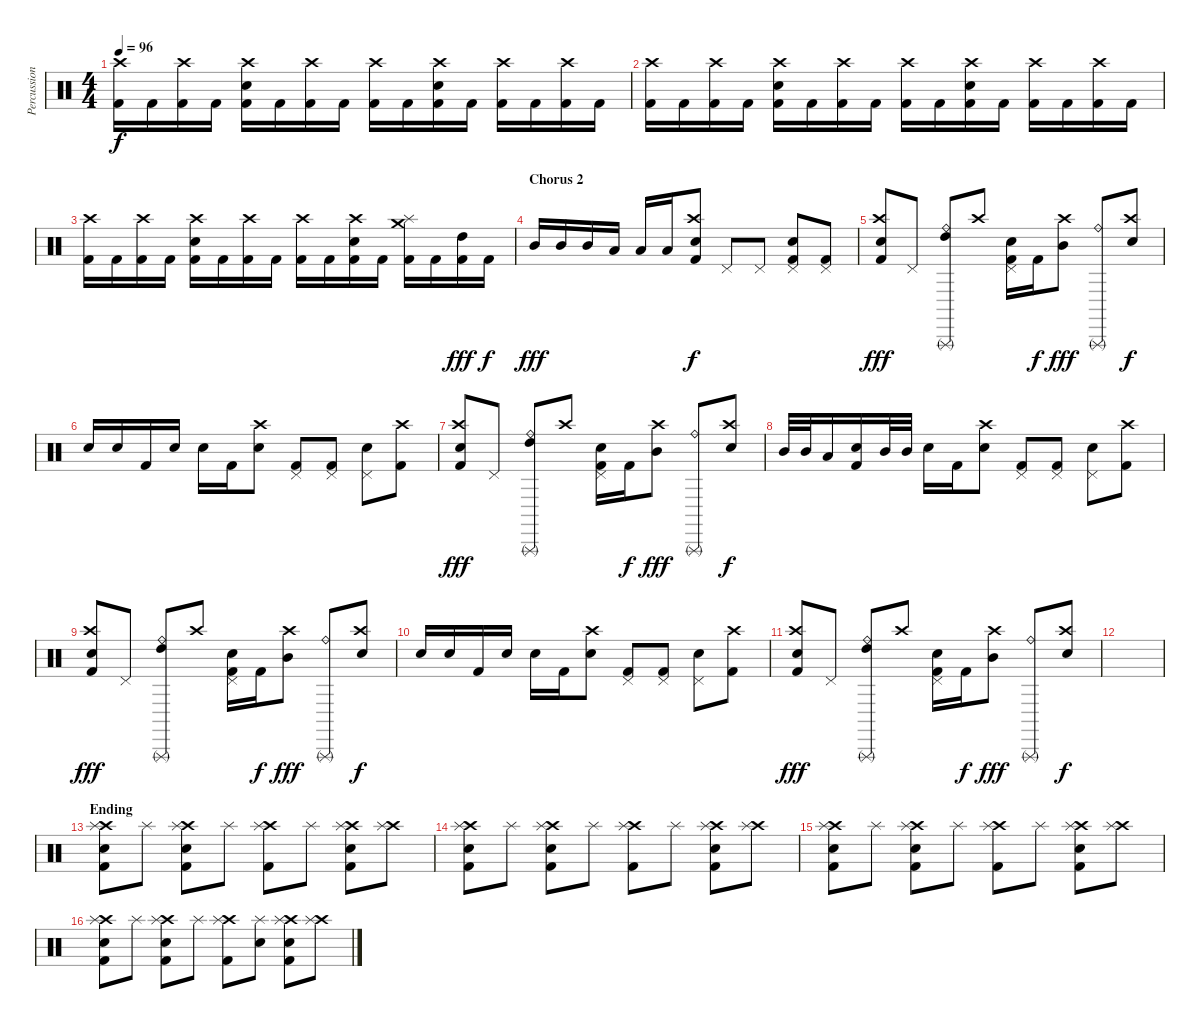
\track ("Percussion" "Percussion") {instrument percussion}
\staff {score}
\articulation defaults
\ts (4 4)
\tempo 96
\clef neutral
\ks c
("Kick (hit) 2" "Crash high (hit)").16{dy f} "Kick (hit) 2".16 ("Kick (hit) 2" "Crash high (hit)").16 "Kick (hit) 2".16 ("Kick (hit) 2" "Snare (hit) 2" "Crash high (hit)").16 "Kick (hit) 2".16 ("Kick (hit) 2" "Crash high (hit)").16 "Kick (hit) 2".16 ("Kick (hit) 2" "Crash high (hit)").16 "Kick (hit) 2".16 ("Kick (hit) 2" "Snare (hit) 2" "Crash high (hit)").16 "Kick (hit) 2".16 ("Kick (hit) 2" "Crash high (hit)").16 "Kick (hit) 2".16 ("Kick (hit) 2" "Crash high (hit)").16 "Kick (hit) 2".16 |
("Kick (hit) 2" "Crash high (hit)").16 "Kick (hit) 2".16 ("Kick (hit) 2" "Crash high (hit)").16 "Kick (hit) 2".16 ("Kick (hit) 2" "Snare (hit) 2" "Crash high (hit)").16 "Kick (hit) 2".16 ("Kick (hit) 2" "Crash high (hit)").16 "Kick (hit) 2".16 ("Kick (hit) 2" "Crash high (hit)").16 "Kick (hit) 2".16 ("Kick (hit) 2" "Snare (hit) 2" "Crash high (hit)").16 "Kick (hit) 2".16 ("Kick (hit) 2" "Crash high (hit)").16 "Kick (hit) 2".16 ("Kick (hit) 2" "Crash high (hit)").16 "Kick (hit) 2".16 |
("Kick (hit) 2" "Crash high (hit)").16 "Kick (hit) 2".16 ("Kick (hit) 2" "Crash high (hit)").16 "Kick (hit) 2".16 ("Kick (hit) 2" "Snare (hit) 2" "Crash high (hit)").16 "Kick (hit) 2".16 ("Kick (hit) 2" "Crash high (hit)").16 "Kick (hit) 2".16 ("Kick (hit) 2" "Crash high (hit)").16 "Kick (hit) 2".16 ("Kick (hit) 2" "Snare (hit) 2" "Crash high (hit)").16 "Kick (hit) 2".16 ("Kick (hit) 2" "Splash (hit)" "Crash medium (hit)").16 "Kick (hit) 2".16 ("Kick (hit) 2" "High Tom (hit)").16{dy fff} "Kick (hit) 2".16{dy f} |
\section ("" "Chorus 2")
"Mid Tom (hit)".16{dy fff} "Mid Tom (hit)".16 "Mid Tom (hit)".16 "Low Tom (hit)".16 "Low Tom (hit)".16 "Low Tom (hit)".16 ("Crash high (hit)" "Snare (hit) 2" "Kick (hit) 2").8{dy f} "Pedal Hi-Hat (hit)".8 "Pedal Hi-Hat (hit)".8 ("Pedal Hi-Hat (hit)" "Snare (hit) 2" "Kick (hit) 2").8 ("Pedal Hi-Hat (hit)" "Kick (hit) 2").8 |
("Crash high (hit)" "Snare (hit) 2" "Kick (hit) 2").8{dy fff} "Pedal Hi-Hat (hit)".8 ("Ride (bell)" "High Tom (hit)" "Triangle (rnute)").8 "Crash high (hit)".8 ("Pedal Hi-Hat (hit)" "Snare (hit) 2" "Kick (hit) 2").16 "Kick (hit) 2".16{dy f} ("Crash high (hit)" "Mid Tom (hit)").8{dy fff} ("Ride (bell)" "Triangle (rnute)").8 ("Crash high (hit)" "Snare (hit) 2").8{dy f} |
"Snare (hit) 2".16 "Snare (hit) 2".16 "Kick (hit) 2".16 "Snare (hit) 2".16 "Snare (hit) 2".16 "Kick (hit) 2".16 ("Crash high (hit)" "Snare (hit) 2").8 ("Pedal Hi-Hat (hit)" "Kick (hit) 2").8 ("Pedal Hi-Hat (hit)" "Kick (hit) 2").8 ("Pedal Hi-Hat (hit)" "Snare (hit) 2").8 ("Crash high (hit)" "Kick (hit) 2").8 |
("Crash high (hit)" "Snare (hit) 2" "Kick (hit) 2").8{dy fff} "Pedal Hi-Hat (hit)".8 ("Ride (bell)" "High Tom (hit)" "Triangle (rnute)").8 "Crash high (hit)".8 ("Pedal Hi-Hat (hit)" "Snare (hit) 2" "Kick (hit) 2").16 "Kick (hit) 2".16{dy f} ("Crash high (hit)" "Mid Tom (hit)").8{dy fff} ("Ride (bell)" "Triangle (rnute)").8 ("Crash high (hit)" "Snare (hit) 2").8{dy f} |
"Mid Tom (hit)".32 "Mid Tom (hit)".32 "Low Tom (hit)".16 ("Snare (hit) 2" "Kick (hit) 2").16 "Mid Tom (hit)".32 "Mid Tom (hit)".32 "Snare (hit) 2".16 "Kick (hit) 2".16 ("Crash high (hit)" "Snare (hit) 2").8 ("Pedal Hi-Hat (hit)" "Kick (hit) 2").8 ("Pedal Hi-Hat (hit)" "Kick (hit) 2").8 ("Pedal Hi-Hat (hit)" "Snare (hit) 2").8 ("Crash high (hit)" "Kick (hit) 2").8 |
("Crash high (hit)" "Snare (hit) 2" "Kick (hit) 2").8{dy fff} "Pedal Hi-Hat (hit)".8 ("Ride (bell)" "High Tom (hit)" "Triangle (rnute)").8 "Crash high (hit)".8 ("Pedal Hi-Hat (hit)" "Snare (hit) 2" "Kick (hit) 2").16 "Kick (hit) 2".16{dy f} ("Crash high (hit)" "Mid Tom (hit)").8{dy fff} ("Ride (bell)" "Triangle (rnute)").8 ("Crash high (hit)" "Snare (hit) 2").8{dy f} |
"Snare (hit) 2".16 "Snare (hit) 2".16 "Kick (hit) 2".16 "Snare (hit) 2".16 "Snare (hit) 2".16 "Kick (hit) 2".16 ("Crash high (hit)" "Snare (hit) 2").8 ("Pedal Hi-Hat (hit)" "Kick (hit) 2").8 ("Pedal Hi-Hat (hit)" "Kick (hit) 2").8 ("Pedal Hi-Hat (hit)" "Snare (hit) 2").8 ("Crash high (hit)" "Kick (hit) 2").8 |
("Crash high (hit)" "Snare (hit) 2" "Kick (hit) 2").8{dy fff} "Pedal Hi-Hat (hit)".8 ("Ride (bell)" "High Tom (hit)" "Triangle (rnute)").8 "Crash high (hit)".8 ("Pedal Hi-Hat (hit)" "Snare (hit) 2" "Kick (hit) 2").16 "Kick (hit) 2".16{dy f} ("Crash high (hit)" "Mid Tom (hit)").8{dy fff} ("Ride (bell)" "Triangle (rnute)").8 ("Crash high (hit)" "Snare (hit) 2").8{dy f} |
|
\section ("" "Ending")
("Crash high (hit)" "Splash (hit)" "Snare (hit) 2" "Kick (hit) 2").8 "Splash (hit)".8 ("Crash high (hit)" "Splash (hit)" "Snare (hit) 2" "Kick (hit) 2").8 "Splash (hit)".8 ("Crash high (hit)" "Splash (hit)" "Kick (hit) 2").8 "Splash (hit)".8 ("Crash high (hit)" "Splash (hit)" "Snare (hit) 2" "Kick (hit) 2").8 ("Crash high (hit)" "Splash (hit)").8 |
("Crash high (hit)" "Splash (hit)" "Snare (hit) 2" "Kick (hit) 2").8 "Splash (hit)".8 ("Crash high (hit)" "Splash (hit)" "Snare (hit) 2" "Kick (hit) 2").8 "Splash (hit)".8 ("Crash high (hit)" "Splash (hit)" "Kick (hit) 2").8 "Splash (hit)".8 ("Crash high (hit)" "Splash (hit)" "Snare (hit) 2" "Kick (hit) 2").8 ("Crash high (hit)" "Splash (hit)").8 |
("Crash high (hit)" "Splash (hit)" "Snare (hit) 2" "Kick (hit) 2").8 "Splash (hit)".8 ("Crash high (hit)" "Splash (hit)" "Snare (hit) 2" "Kick (hit) 2").8 "Splash (hit)".8 ("Crash high (hit)" "Splash (hit)" "Kick (hit) 2").8 "Splash (hit)".8 ("Crash high (hit)" "Splash (hit)" "Snare (hit) 2" "Kick (hit) 2").8 ("Crash high (hit)" "Splash (hit)").8 |
("Crash high (hit)" "Splash (hit)" "Snare (hit) 2" "Kick (hit) 2").8 "Splash (hit)".8 ("Crash high (hit)" "Splash (hit)" "Snare (hit) 2" "Kick (hit) 2").8 "Splash (hit)".8 ("Crash high (hit)" "Splash (hit)" "Kick (hit) 2").8 ("Splash (hit)" "Snare (hit) 2").8 ("Crash high (hit)" "Splash (hit)" "Snare (hit) 2" "Kick (hit) 2").8 ("Crash high (hit)" "Splash (hit)").8
